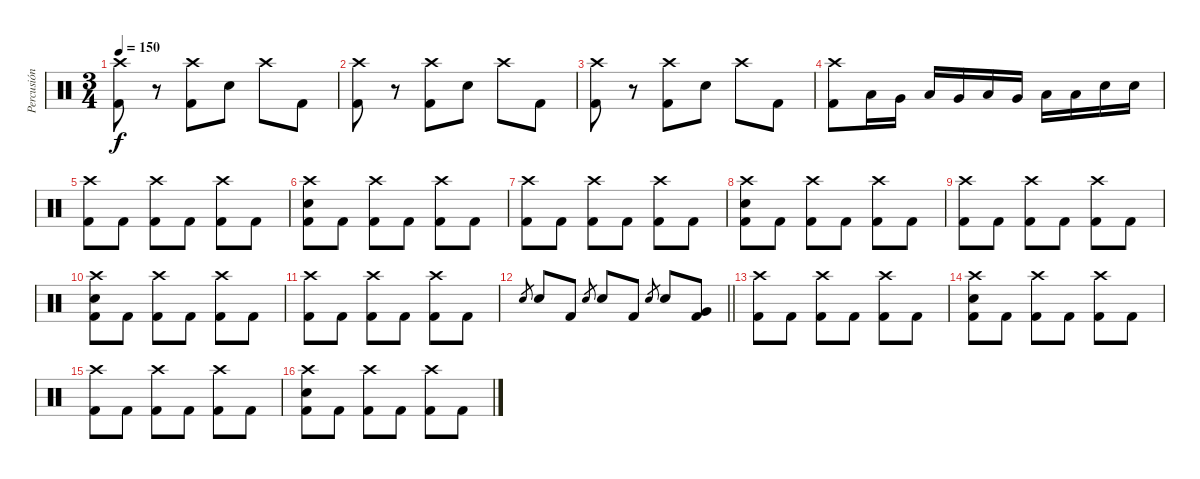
\track ("Percusión" "Percusión") {instrument percussion}
\staff {score}
\articulation defaults
\ts (3 4)
\tempo 150
\clef neutral
\ks c
("Crash high (hit)" "Kick (hit) 2").8{dy f} r.8 ("Crash high (hit)" "Kick (hit) 2").8 "Electric Snare (hit)".8 "Crash high (hit)".8 "Kick (hit) 2".8 |
("Crash high (hit)" "Kick (hit) 2").8 r.8 ("Crash high (hit)" "Kick (hit) 2").8 "Electric Snare (hit)".8 "Crash high (hit)".8 "Kick (hit) 2".8 |
("Crash high (hit)" "Kick (hit) 2").8 r.8 ("Crash high (hit)" "Kick (hit) 2").8 "Electric Snare (hit)".8 "Crash high (hit)".8 "Kick (hit) 2".8 |
("Crash high (hit)" "Kick (hit) 2").8 "Low Tom (hit)".16 "Very Low Tom (hit)".16 "Low Tom (hit)".16 "Very Low Tom (hit)".16 "Low Floor Tom (hit)".16 "Very Low Tom (hit)".16 "Low Floor Tom (hit)".16 "Low Floor Tom (hit)".16 "Electric Snare (hit)".16 "Electric Snare (hit)".16 |
("Crash high (hit)" "Kick (hit) 2").8 "Kick (hit) 2".8 ("Crash high (hit)" "Kick (hit) 2").8 "Kick (hit) 2".8 ("Crash high (hit)" "Kick (hit) 2").8 "Kick (hit) 2".8 |
("Crash high (hit)" "Electric Snare (hit)" "Kick (hit) 2").8 "Kick (hit) 2".8 ("Crash high (hit)" "Kick (hit) 2").8 "Kick (hit) 2".8 ("Crash high (hit)" "Kick (hit) 2").8 "Kick (hit) 2".8 |
("Crash high (hit)" "Kick (hit) 2").8 "Kick (hit) 2".8 ("Crash high (hit)" "Kick (hit) 2").8 "Kick (hit) 2".8 ("Crash high (hit)" "Kick (hit) 2").8 "Kick (hit) 2".8 |
("Crash high (hit)" "Electric Snare (hit)" "Kick (hit) 2").8 "Kick (hit) 2".8 ("Crash high (hit)" "Kick (hit) 2").8 "Kick (hit) 2".8 ("Crash high (hit)" "Kick (hit) 2").8 "Kick (hit) 2".8 |
("Crash high (hit)" "Kick (hit) 2").8 "Kick (hit) 2".8 ("Crash high (hit)" "Kick (hit) 2").8 "Kick (hit) 2".8 ("Crash high (hit)" "Kick (hit) 2").8 "Kick (hit) 2".8 |
("Crash high (hit)" "Electric Snare (hit)" "Kick (hit) 2").8 "Kick (hit) 2".8 ("Crash high (hit)" "Kick (hit) 2").8 "Kick (hit) 2".8 ("Crash high (hit)" "Kick (hit) 2").8 "Kick (hit) 2".8 |
("Crash high (hit)" "Kick (hit) 2").8 "Kick (hit) 2".8 ("Crash high (hit)" "Kick (hit) 2").8 "Kick (hit) 2".8 ("Crash high (hit)" "Kick (hit) 2").8 "Kick (hit) 2".8 |
\barLineRight lightlight "Electric Snare (hit)".8{gr} "Electric Snare (hit)".8 "Kick (hit) 2".8 "Electric Snare (hit)".8{gr} "Electric Snare (hit)".8 "Kick (hit) 2".8 "Electric Snare (hit)".8{gr} "Electric Snare (hit)".8
("Very Low Tom (hit)" "Kick (hit) 2").8 |
("Crash high (hit)" "Kick (hit) 2").8 "Kick (hit) 2".8 ("Crash high (hit)" "Kick (hit) 2").8 "Kick (hit) 2".8 ("Crash high (hit)" "Kick (hit) 2").8 "Kick (hit) 2".8 |
("Crash high (hit)" "Electric Snare (hit)" "Kick (hit) 2").8 "Kick (hit) 2".8 ("Crash high (hit)" "Kick (hit) 2").8 "Kick (hit) 2".8 ("Crash high (hit)" "Kick (hit) 2").8 "Kick (hit) 2".8 |
("Crash high (hit)" "Kick (hit) 2").8 "Kick (hit) 2".8 ("Crash high (hit)" "Kick (hit) 2").8 "Kick (hit) 2".8 ("Crash high (hit)" "Kick (hit) 2").8 "Kick (hit) 2".8 |
("Crash high (hit)" "Electric Snare (hit)" "Kick (hit) 2").8 "Kick (hit) 2".8 ("Crash high (hit)" "Kick (hit) 2").8 "Kick (hit) 2".8 ("Crash high (hit)" "Kick (hit) 2").8 "Kick (hit) 2".8
